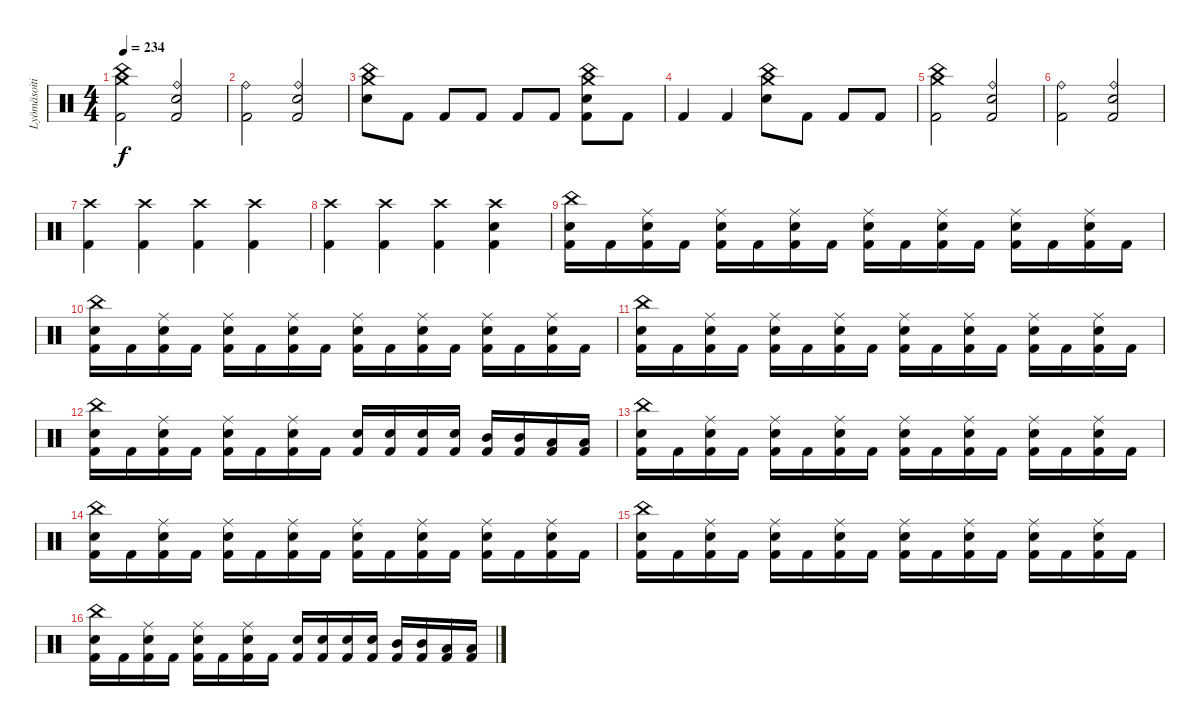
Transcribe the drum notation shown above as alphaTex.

\track ("Lyömäsoitin" "Lyömäsoiti") {instrument percussion}
\staff {score}
\articulation defaults
\ts (4 4)
\tempo 234
\clef neutral
\ks c
("Crash medium (hit)" "China (hit)" "Kick (hit) 2").2{dy f} ("Ride (bell)" "Electric Snare (hit)" "Kick (hit) 2").2 |
("Ride (bell)" "Kick (hit) 2").2 ("Ride (bell)" "Electric Snare (hit)" "Kick (hit) 2").2 |
("Crash medium (hit)" "China (hit)" "Electric Snare (hit)").8 "Kick (hit) 2".8 "Kick (hit) 2".8 "Kick (hit) 2".8 "Kick (hit) 2".8 "Kick (hit) 2".8 ("Crash medium (hit)" "China (hit)" "Electric Snare (hit)" "Kick (hit) 2").8 "Kick (hit) 2".8 |
"Kick (hit) 2".4 "Kick (hit) 2".4 ("Crash medium (hit)" "China (hit)" "Electric Snare (hit)").8 "Kick (hit) 2".8 "Kick (hit) 2".8 "Kick (hit) 2".8 |
("Crash medium (hit)" "China (hit)" "Kick (hit) 2").2 ("Ride (bell)" "Electric Snare (hit)" "Kick (hit) 2").2 |
("Ride (bell)" "Kick (hit) 2").2 ("Ride (bell)" "Electric Snare (hit)" "Kick (hit) 2").2 |
("Crash high (hit)" "Kick (hit) 2").4 ("Crash high (hit)" "Kick (hit) 2").4 ("Crash high (hit)" "Kick (hit) 2").4 ("Crash high (hit)" "Kick (hit) 2").4 |
("Crash high (hit)" "Kick (hit) 2").4 ("Crash high (hit)" "Kick (hit) 2").4 ("Crash high (hit)" "Kick (hit) 2").4 ("Crash high (hit)" "Electric Snare (hit)" "Kick (hit) 2").4 |
("China (hit)" "Electric Snare (hit)" "Kick (hit) 2").16 "Kick (hit) 2".16 ("Ride (middle)" "Electric Snare (hit)" "Kick (hit) 2").16 "Kick (hit) 2".16 ("Ride (middle)" "Electric Snare (hit)" "Kick (hit) 2").16 "Kick (hit) 2".16 ("Ride (middle)" "Electric Snare (hit)" "Kick (hit) 2").16 "Kick (hit) 2".16 ("Ride (middle)" "Electric Snare (hit)" "Kick (hit) 2").16 "Kick (hit) 2".16 ("Ride (middle)" "Electric Snare (hit)" "Kick (hit) 2").16 "Kick (hit) 2".16 ("Ride (middle)" "Electric Snare (hit)" "Kick (hit) 2").16 "Kick (hit) 2".16 ("Ride (middle)" "Electric Snare (hit)" "Kick (hit) 2").16 "Kick (hit) 2".16 |
("China (hit)" "Electric Snare (hit)" "Kick (hit) 2").16 "Kick (hit) 2".16 ("Ride (middle)" "Electric Snare (hit)" "Kick (hit) 2").16 "Kick (hit) 2".16 ("Ride (middle)" "Electric Snare (hit)" "Kick (hit) 2").16 "Kick (hit) 2".16 ("Ride (middle)" "Electric Snare (hit)" "Kick (hit) 2").16 "Kick (hit) 2".16 ("Ride (middle)" "Electric Snare (hit)" "Kick (hit) 2").16 "Kick (hit) 2".16 ("Ride (middle)" "Electric Snare (hit)" "Kick (hit) 2").16 "Kick (hit) 2".16 ("Ride (middle)" "Electric Snare (hit)" "Kick (hit) 2").16 "Kick (hit) 2".16 ("Ride (middle)" "Electric Snare (hit)" "Kick (hit) 2").16 "Kick (hit) 2".16 |
("China (hit)" "Electric Snare (hit)" "Kick (hit) 2").16 "Kick (hit) 2".16 ("Ride (middle)" "Electric Snare (hit)" "Kick (hit) 2").16 "Kick (hit) 2".16 ("Ride (middle)" "Electric Snare (hit)" "Kick (hit) 2").16 "Kick (hit) 2".16 ("Ride (middle)" "Electric Snare (hit)" "Kick (hit) 2").16 "Kick (hit) 2".16 ("Ride (middle)" "Electric Snare (hit)" "Kick (hit) 2").16 "Kick (hit) 2".16 ("Ride (middle)" "Electric Snare (hit)" "Kick (hit) 2").16 "Kick (hit) 2".16 ("Ride (middle)" "Electric Snare (hit)" "Kick (hit) 2").16 "Kick (hit) 2".16 ("Ride (middle)" "Electric Snare (hit)" "Kick (hit) 2").16 "Kick (hit) 2".16 |
("China (hit)" "Electric Snare (hit)" "Kick (hit) 2").16 "Kick (hit) 2".16 ("Ride (middle)" "Electric Snare (hit)" "Kick (hit) 2").16 "Kick (hit) 2".16 ("Ride (middle)" "Electric Snare (hit)" "Kick (hit) 2").16 "Kick (hit) 2".16 ("Ride (middle)" "Electric Snare (hit)" "Kick (hit) 2").16 "Kick (hit) 2".16 ("Electric Snare (hit)" "Kick (hit) 2").16 ("Electric Snare (hit)" "Kick (hit) 2").16 ("Electric Snare (hit)" "Kick (hit) 2").16 ("Electric Snare (hit)" "Kick (hit) 2").16 ("Mid Tom (hit)" "Kick (hit) 2").16 ("Mid Tom (hit)" "Kick (hit) 2").16 ("Low Tom (hit)" "Kick (hit) 2").16 ("Low Tom (hit)" "Kick (hit) 2").16 |
("China (hit)" "Electric Snare (hit)" "Kick (hit) 2").16 "Kick (hit) 2".16 ("Ride (middle)" "Electric Snare (hit)" "Kick (hit) 2").16 "Kick (hit) 2".16 ("Ride (middle)" "Electric Snare (hit)" "Kick (hit) 2").16 "Kick (hit) 2".16 ("Ride (middle)" "Electric Snare (hit)" "Kick (hit) 2").16 "Kick (hit) 2".16 ("Ride (middle)" "Electric Snare (hit)" "Kick (hit) 2").16 "Kick (hit) 2".16 ("Ride (middle)" "Electric Snare (hit)" "Kick (hit) 2").16 "Kick (hit) 2".16 ("Ride (middle)" "Electric Snare (hit)" "Kick (hit) 2").16 "Kick (hit) 2".16 ("Ride (middle)" "Electric Snare (hit)" "Kick (hit) 2").16 "Kick (hit) 2".16 |
("China (hit)" "Electric Snare (hit)" "Kick (hit) 2").16 "Kick (hit) 2".16 ("Ride (middle)" "Electric Snare (hit)" "Kick (hit) 2").16 "Kick (hit) 2".16 ("Ride (middle)" "Electric Snare (hit)" "Kick (hit) 2").16 "Kick (hit) 2".16 ("Ride (middle)" "Electric Snare (hit)" "Kick (hit) 2").16 "Kick (hit) 2".16 ("Ride (middle)" "Electric Snare (hit)" "Kick (hit) 2").16 "Kick (hit) 2".16 ("Ride (middle)" "Electric Snare (hit)" "Kick (hit) 2").16 "Kick (hit) 2".16 ("Ride (middle)" "Electric Snare (hit)" "Kick (hit) 2").16 "Kick (hit) 2".16 ("Ride (middle)" "Electric Snare (hit)" "Kick (hit) 2").16 "Kick (hit) 2".16 |
("China (hit)" "Electric Snare (hit)" "Kick (hit) 2").16 "Kick (hit) 2".16 ("Ride (middle)" "Electric Snare (hit)" "Kick (hit) 2").16 "Kick (hit) 2".16 ("Ride (middle)" "Electric Snare (hit)" "Kick (hit) 2").16 "Kick (hit) 2".16 ("Ride (middle)" "Electric Snare (hit)" "Kick (hit) 2").16 "Kick (hit) 2".16 ("Ride (middle)" "Electric Snare (hit)" "Kick (hit) 2").16 "Kick (hit) 2".16 ("Ride (middle)" "Electric Snare (hit)" "Kick (hit) 2").16 "Kick (hit) 2".16 ("Ride (middle)" "Electric Snare (hit)" "Kick (hit) 2").16 "Kick (hit) 2".16 ("Ride (middle)" "Electric Snare (hit)" "Kick (hit) 2").16 "Kick (hit) 2".16 |
("China (hit)" "Electric Snare (hit)" "Kick (hit) 2").16 "Kick (hit) 2".16 ("Ride (middle)" "Electric Snare (hit)" "Kick (hit) 2").16 "Kick (hit) 2".16 ("Ride (middle)" "Electric Snare (hit)" "Kick (hit) 2").16 "Kick (hit) 2".16 ("Ride (middle)" "Electric Snare (hit)" "Kick (hit) 2").16 "Kick (hit) 2".16 ("Electric Snare (hit)" "Kick (hit) 2").16 ("Electric Snare (hit)" "Kick (hit) 2").16 ("Electric Snare (hit)" "Kick (hit) 2").16 ("Electric Snare (hit)" "Kick (hit) 2").16 ("Mid Tom (hit)" "Kick (hit) 2").16 ("Mid Tom (hit)" "Kick (hit) 2").16 ("Low Tom (hit)" "Kick (hit) 2").16 ("Low Tom (hit)" "Kick (hit) 2").16
